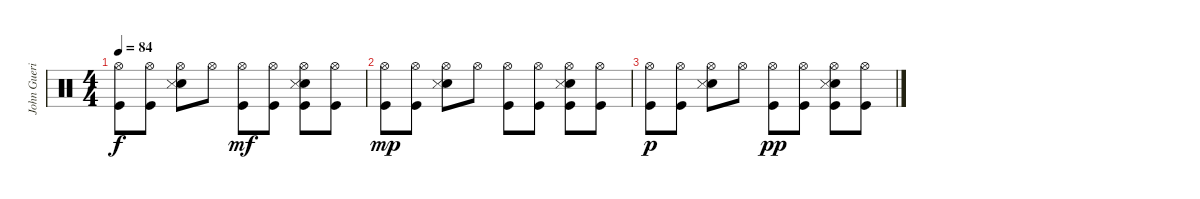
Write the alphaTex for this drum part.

\track ("John Guerin - Drum's" "John Gueri") {instrument percussion}
\staff {score}
\articulation defaults
\ts (4 4)
\tempo 84
\clef neutral
\ks c
("Hi-Hat (open)" "Kick (hit)").8{dy f} ("Hi-Hat (open)" "Kick (hit)").8 ("Hi-Hat (open)" "Electric Snare (hit)" "Snare (side stick) 3").8 "Hi-Hat (open)".8 ("Hi-Hat (open)" "Kick (hit)").8{dy mf} ("Hi-Hat (open)" "Kick (hit)").8 ("Hi-Hat (open)" "Electric Snare (hit)" "Snare (side stick) 3" "Kick (hit)").8 ("Hi-Hat (open)" "Kick (hit)").8 |
("Hi-Hat (open)" "Kick (hit)").8{dy mp} ("Hi-Hat (open)" "Kick (hit)").8 ("Hi-Hat (open)" "Electric Snare (hit)" "Snare (side stick) 3").8 "Hi-Hat (open)".8 ("Hi-Hat (open)" "Kick (hit)").8 ("Hi-Hat (open)" "Kick (hit)").8 ("Hi-Hat (open)" "Electric Snare (hit)" "Snare (side stick) 3" "Kick (hit)").8 ("Hi-Hat (open)" "Kick (hit)").8 |
("Hi-Hat (open)" "Kick (hit)").8{dy p} ("Hi-Hat (open)" "Kick (hit)").8 ("Hi-Hat (open)" "Electric Snare (hit)" "Snare (side stick) 3").8 "Hi-Hat (open)".8 ("Hi-Hat (open)" "Kick (hit)").8{dy pp} ("Hi-Hat (open)" "Kick (hit)").8 ("Hi-Hat (open)" "Electric Snare (hit)" "Snare (side stick) 3" "Kick (hit)").8 ("Hi-Hat (open)" "Kick (hit)").8
